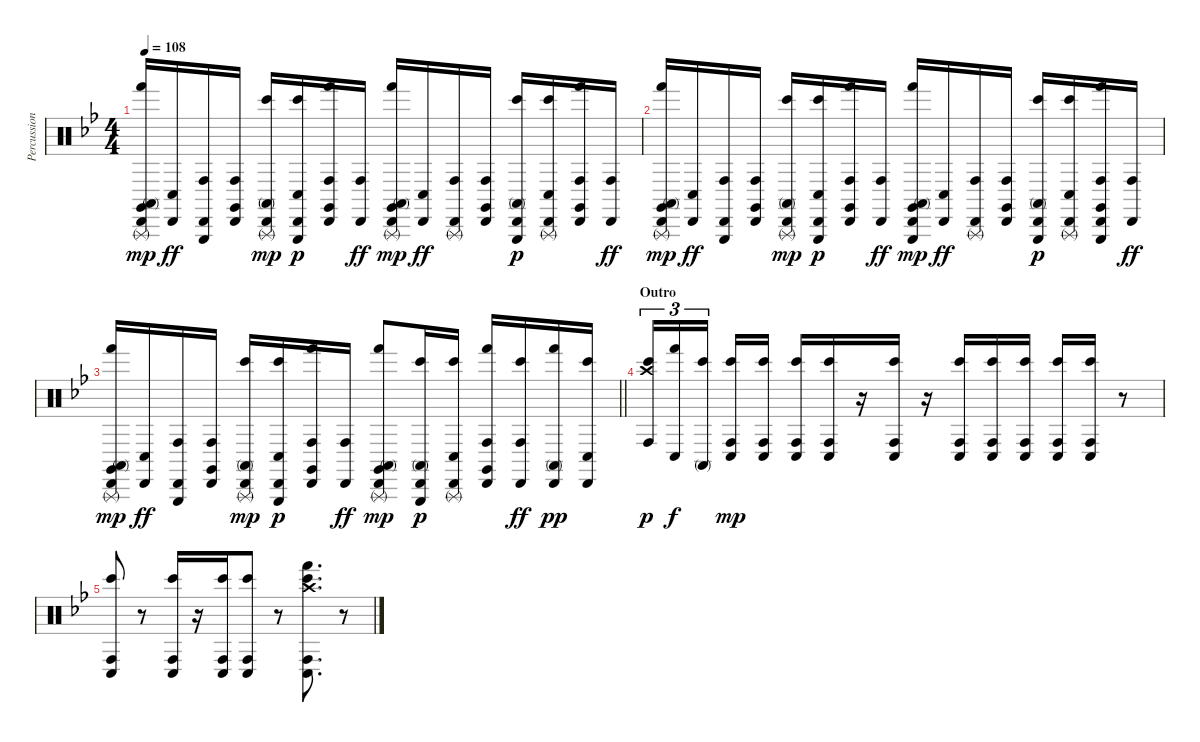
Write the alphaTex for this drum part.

\track ("Percussion" "Percussion") {instrument percussion}
\staff {score}
\articulation defaults
\ts (4 4)
\tempo 108
\clef neutral
\ks gminor
("Cabasa (hit)" "Triangle (rnute)" "Claves (hit)" "Conga high (mute)" "Hand (hit)").16{dy mp} ("Cabasa (hit)" "Conga low (hit)").16{dy ff} ("Cabasa (hit)" "Triangle (hit)" "Conga high (hit)").16 ("Cabasa (hit)" "Claves (hit)" "Conga high (hit)").16 ("Cabasa (hit)" "Triangle (rnute)" "Conga high (mute)" "Bongo High (hit)").16{dy mp} ("Cabasa (hit)" "Triangle (hit)" "Conga low (hit)" "Bongo High (hit)").16{dy p} ("Cabasa (hit)" "Claves (hit)" "Conga high (hit)" "Hand (hit)").16 ("Cabasa (hit)" "Conga high (hit)").16{dy ff} ("Cabasa (hit)" "Triangle (rnute)" "Claves (hit)" "Conga high (mute)" "Hand (hit)").16{dy mp} ("Cabasa (hit)" "Conga low (hit)").16{dy ff} ("Cabasa (hit)" "Triangle (rnute)" "Conga high (hit)").16 ("Cabasa (hit)" "Claves (hit)" "Conga high (hit)").16 ("Cabasa (hit)" "Triangle (hit)" "Conga high (mute)" "Bongo High (hit)").16{dy p} ("Cabasa (hit)" "Triangle (rnute)" "Conga low (hit)" "Bongo High (hit)").16 ("Cabasa (hit)" "Claves (hit)" "Conga high (hit)" "Hand (hit)").16 ("Cabasa (hit)" "Conga high (hit)").16{dy ff} |
("Cabasa (hit)" "Claves (hit)" "Triangle (rnute)" "Conga high (mute)" "Hand (hit)").16{dy mp} ("Cabasa (hit)" "Conga low (hit)").16{dy ff} ("Cabasa (hit)" "Triangle (hit)" "Conga high (hit)").16 ("Cabasa (hit)" "Claves (hit)" "Conga high (hit)").16 ("Cabasa (hit)" "Triangle (rnute)" "Conga high (mute)" "Bongo High (hit)").16{dy mp} ("Cabasa (hit)" "Triangle (hit)" "Conga low (hit)" "Bongo High (hit)").16{dy p} ("Cabasa (hit)" "Claves (hit)" "Conga high (hit)" "Hand (hit)").16 ("Cabasa (hit)" "Conga high (hit)").16{dy ff} ("Cabasa (hit)" "Claves (hit)" "Triangle (hit)" "Conga high (mute)" "Hand (hit)").16{dy mp} ("Cabasa (hit)" "Conga low (hit)").16{dy ff} ("Cabasa (hit)" "Triangle (rnute)" "Conga high (hit)").16 ("Cabasa (hit)" "Claves (hit)" "Conga high (hit)").16 ("Cabasa (hit)" "Triangle (hit)" "Conga high (mute)" "Bongo High (hit)").16{dy p} ("Cabasa (hit)" "Triangle (rnute)" "Conga low (hit)" "Bongo High (hit)").16 ("Cabasa (hit)" "Claves (hit)" "Triangle (hit)" "Conga high (hit)" "Hand (hit)").16 ("Cabasa (hit)" "Conga high (hit)").16{dy ff} |
\barLineRight lightlight
("Cabasa (hit)" "Triangle (rnute)" "Claves (hit)" "Conga high (mute)" "Hand (hit)").16{dy mp} ("Cabasa (hit)" "Conga low (hit)").16{dy ff} ("Cabasa (hit)" "Triangle (hit)" "Conga high (hit)").16 ("Cabasa (hit)" "Claves (hit)" "Conga high (hit)").16 ("Cabasa (hit)" "Triangle (rnute)" "Conga high (mute)" "Bongo High (hit)").16{dy mp} ("Cabasa (hit)" "Triangle (hit)" "Conga low (hit)" "Bongo High (hit)").16{dy p} ("Cabasa (hit)" "Claves (hit)" "Conga high (hit)" "Hand (hit)").16 ("Cabasa (hit)" "Conga high (hit)").16{dy ff} ("Cabasa (hit)" "Triangle (rnute)" "Claves (hit)" "Conga high (mute)" "Hand (hit)").8{dy mp} ("Cabasa (hit)" "Triangle (hit)" "Conga high (mute)" "Bongo High (hit)").16{dy p} ("Cabasa (hit)" "Triangle (rnute)" "Conga low (hit)" "Bongo High (hit)").16 ("Cabasa (hit)" "Claves (hit)" "Conga high (hit)" "Hand (hit)").16 ("Cabasa (hit)" "Conga high (hit)" "Bongo High (hit)").16{dy ff} ("Cabasa (hit)" "Conga high (mute)" "Hand (hit)").16{dy pp} ("Cabasa (hit)" "Conga low (hit)" "Bongo High (hit)").16 |
\section ("" "Outro")
("Crash high (hit)" "Conga high (hit)" "Bongo High (hit)").16{tu (3 2) dy p} ("Conga low (hit)" "Hand (hit)").16{tu (3 2) dy f} ("Conga high (mute)" "Bongo High (hit)").16{tu (3 2) beam splitsecondary} ("Conga low (hit)" "Conga high (hit)" "Bongo High (hit)").16{dy mp} ("Conga low (hit)" "Conga high (hit)" "Bongo High (hit)").16 ("Conga low (hit)" "Conga high (hit)" "Bongo High (hit)").16 ("Conga low (hit)" "Conga high (hit)" "Bongo High (hit)").16 r.16 ("Conga low (hit)" "Conga high (hit)" "Bongo High (hit)").16 r.16 ("Conga low (hit)" "Conga high (hit)" "Bongo High (hit)").16 ("Conga low (hit)" "Conga high (hit)" "Bongo High (hit)").16 ("Conga low (hit)" "Conga high (hit)" "Bongo High (hit)").16 ("Conga low (hit)" "Conga high (hit)" "Bongo High (hit)").16 ("Conga low (hit)" "Conga high (hit)" "Bongo High (hit)").16 r.8 |
("Conga low (hit)" "Conga high (hit)" "Bongo High (hit)").8 r.8 ("Conga low (hit)" "Conga high (hit)" "Bongo High (hit)").16 r.16 ("Conga low (hit)" "Conga high (hit)" "Bongo High (hit)").16 ("Conga low (hit)" "Conga high (hit)" "Bongo High (hit)").8 r.8 ("Crash high (hit)" "Conga low (hit)" "Conga high (hit)" "Hand (hit)" "Bongo High (hit)").8{d} r.8
